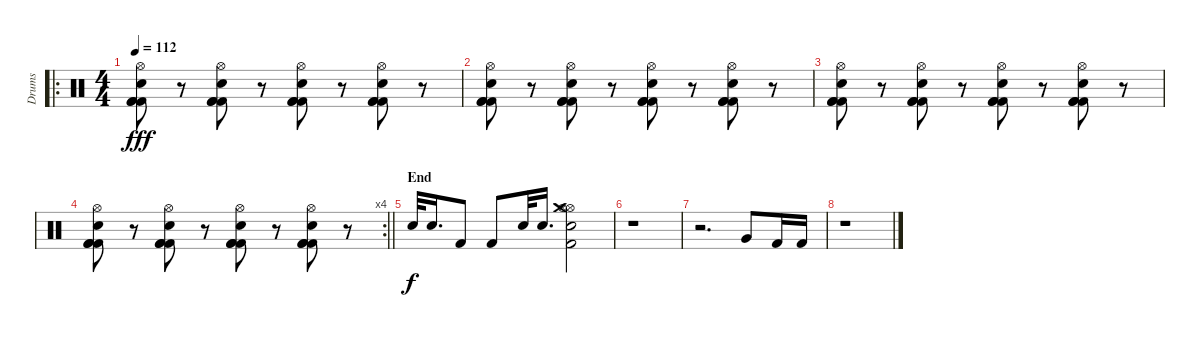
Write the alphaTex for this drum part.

\track ("Drums" "Drums") {instrument percussion}
\staff {score}
\articulation defaults
\ro
\ts (4 4)
\tempo 112
\clef neutral
\ks c
("Hi-Hat (open)" "Electric Snare (hit)" "Kick (hit) 2" "Kick (hit) 2" "Kick (hit) 2").8{dy fff} r.8 ("Hi-Hat (open)" "Electric Snare (hit)" "Kick (hit) 2" "Kick (hit) 2" "Kick (hit) 2").8 r.8 ("Hi-Hat (open)" "Electric Snare (hit)" "Kick (hit) 2" "Kick (hit) 2" "Kick (hit) 2").8 r.8 ("Hi-Hat (open)" "Electric Snare (hit)" "Kick (hit) 2" "Kick (hit) 2" "Kick (hit) 2").8 r.8 |
("Hi-Hat (open)" "Electric Snare (hit)" "Kick (hit) 2" "Kick (hit) 2" "Kick (hit) 2").8 r.8 ("Hi-Hat (open)" "Electric Snare (hit)" "Kick (hit) 2" "Kick (hit) 2" "Kick (hit) 2").8 r.8 ("Hi-Hat (open)" "Electric Snare (hit)" "Kick (hit) 2" "Kick (hit) 2" "Kick (hit) 2").8 r.8 ("Hi-Hat (open)" "Electric Snare (hit)" "Kick (hit) 2" "Kick (hit) 2" "Kick (hit) 2").8 r.8 |
("Hi-Hat (open)" "Electric Snare (hit)" "Kick (hit) 2" "Kick (hit) 2" "Kick (hit) 2").8 r.8 ("Hi-Hat (open)" "Electric Snare (hit)" "Kick (hit) 2" "Kick (hit) 2" "Kick (hit) 2").8 r.8 ("Hi-Hat (open)" "Electric Snare (hit)" "Kick (hit) 2" "Kick (hit) 2" "Kick (hit) 2").8 r.8 ("Hi-Hat (open)" "Electric Snare (hit)" "Kick (hit) 2" "Kick (hit) 2" "Kick (hit) 2").8 r.8 |
\rc 4
\barLineRight lightlight
("Hi-Hat (open)" "Electric Snare (hit)" "Kick (hit) 2" "Kick (hit) 2" "Kick (hit) 2").8 r.8 ("Hi-Hat (open)" "Electric Snare (hit)" "Kick (hit) 2" "Kick (hit) 2" "Kick (hit) 2").8 r.8 ("Hi-Hat (open)" "Electric Snare (hit)" "Kick (hit) 2" "Kick (hit) 2" "Kick (hit) 2").8 r.8 ("Hi-Hat (open)" "Electric Snare (hit)" "Kick (hit) 2" "Kick (hit) 2" "Kick (hit) 2").8 r.8 |
\section ("" "End")
"Electric Snare (hit)".32{dy f} "Electric Snare (hit)".16{d} "Kick (hit) 2".8 "Kick (hit) 2".8 "Electric Snare (hit)".32 "Electric Snare (hit)".16{d} ("Hi-Hat (open)" "Crash medium (hit)" "Hi-Hat (open)" "Kick (hit) 2" "Electric Snare (hit)").2 |
r.1 |
r.2{d} "Very Low Tom (hit)".8 "Kick (hit) 2".16 "Kick (hit) 2".16 |
r.1
